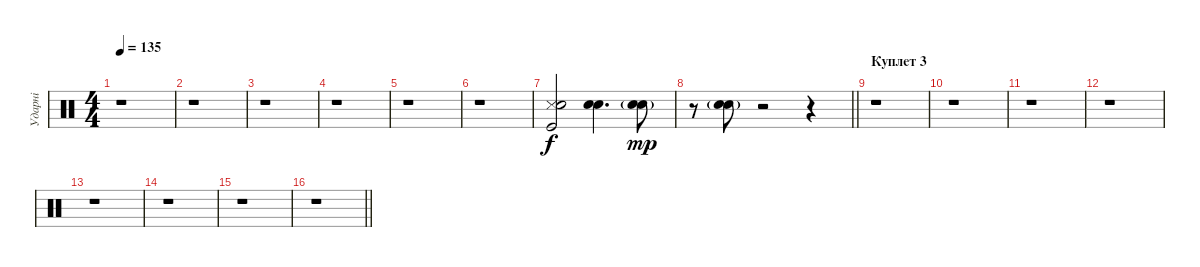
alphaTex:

\track ("Ударні" "Ударні") {instrument percussion}
\staff {score}
\articulation defaults
\ts (4 4)
\tempo 135
\clef neutral
\ks c
r.1{dy f} |
r.1 |
r.1 |
r.1 |
r.1 |
r.1 |
("Snare (side stick) 3" "Hand Clap (hit)" "Kick (hit)").2 ("Snare (hit) 2" "Hand Clap (hit)").4{d} ("Snare (hit) 2"{g} "Hand Clap (hit)"{g}).8{dy mp} |
\barLineRight lightlight
r.8 ("Snare (hit) 2"{g} "Hand Clap (hit)"{g}).8 r.2 r.4 |
\section ("" "Куплет 3")
r.1 |
r.1 |
r.1 |
r.1 |
r.1 |
r.1 |
r.1 |
\barLineRight lightlight
r.1
